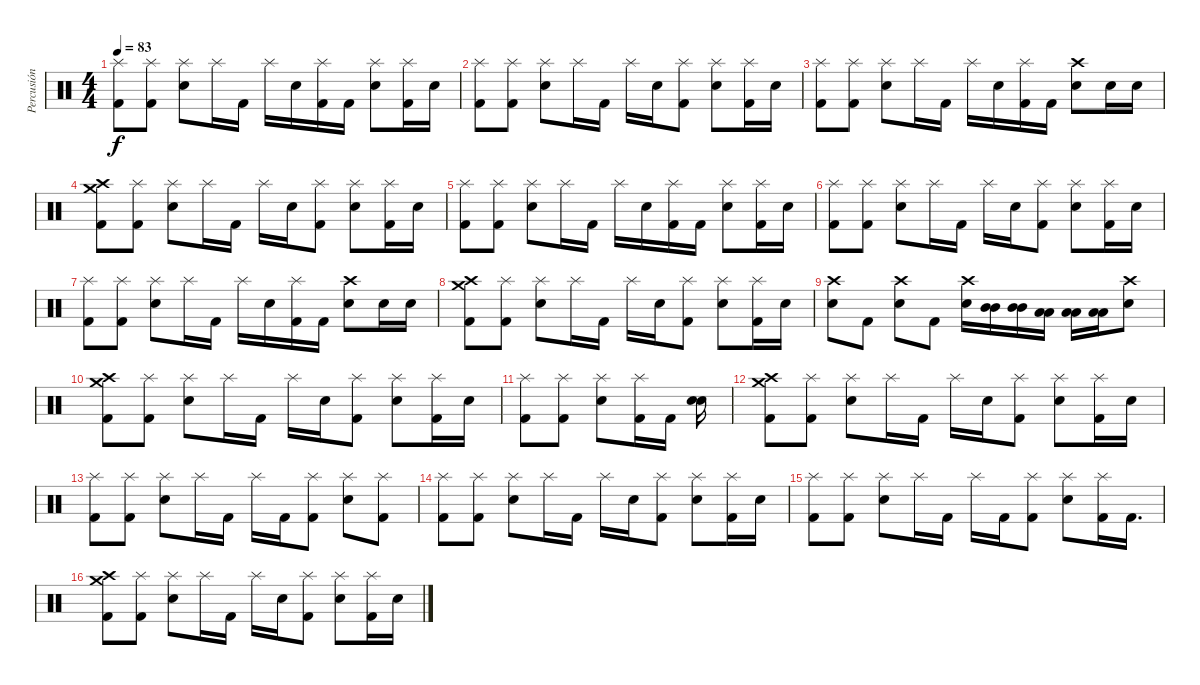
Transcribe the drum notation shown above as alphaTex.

\track ("Percusión" "Percusión") {instrument percussion}
\staff {score}
\articulation defaults
\ts (4 4)
\tempo 83
\clef neutral
\ks c
("Splash (hit)" "Kick (hit) 2").8{dy f} ("Splash (hit)" "Kick (hit) 2").8 ("Splash (hit)" "Electric Snare (hit)").8 "Splash (hit)".16 "Kick (hit) 2".16 "Splash (hit)".16 "Electric Snare (hit)".16 ("Splash (hit)" "Kick (hit) 2").16 "Kick (hit) 2".16 ("Splash (hit)" "Electric Snare (hit)").8 ("Splash (hit)" "Kick (hit) 2").16 "Electric Snare (hit)".16 |
("Splash (hit)" "Kick (hit) 2").8 ("Splash (hit)" "Kick (hit) 2").8 ("Splash (hit)" "Electric Snare (hit)").8 "Splash (hit)".16 "Kick (hit) 2".16 "Splash (hit)".16 "Electric Snare (hit)".16 ("Splash (hit)" "Kick (hit) 2").8 ("Splash (hit)" "Electric Snare (hit)").8 ("Splash (hit)" "Kick (hit) 2").16 "Electric Snare (hit)".16 |
("Splash (hit)" "Kick (hit) 2").8 ("Splash (hit)" "Kick (hit) 2").8 ("Splash (hit)" "Electric Snare (hit)").8 "Splash (hit)".16 "Kick (hit) 2".16 "Splash (hit)".16 "Electric Snare (hit)".16 ("Splash (hit)" "Kick (hit) 2").16 "Kick (hit) 2".16 ("Crash high (hit)" "Electric Snare (hit)").8 "Electric Snare (hit)".16 "Electric Snare (hit)".16 |
("Crash medium (hit)" "Crash high (hit)" "Kick (hit) 2").8 ("Splash (hit)" "Kick (hit) 2").8 ("Splash (hit)" "Electric Snare (hit)").8 "Splash (hit)".16 "Kick (hit) 2".16 "Splash (hit)".16 "Electric Snare (hit)".16 ("Splash (hit)" "Kick (hit) 2").8 ("Splash (hit)" "Electric Snare (hit)").8 ("Splash (hit)" "Kick (hit) 2").16 "Electric Snare (hit)".16 |
("Splash (hit)" "Kick (hit) 2").8 ("Splash (hit)" "Kick (hit) 2").8 ("Splash (hit)" "Electric Snare (hit)").8 "Splash (hit)".16 "Kick (hit) 2".16 "Splash (hit)".16 "Electric Snare (hit)".16 ("Splash (hit)" "Kick (hit) 2").16 "Kick (hit) 2".16 ("Splash (hit)" "Electric Snare (hit)").8 ("Splash (hit)" "Kick (hit) 2").16 "Electric Snare (hit)".16 |
("Splash (hit)" "Kick (hit) 2").8 ("Splash (hit)" "Kick (hit) 2").8 ("Splash (hit)" "Electric Snare (hit)").8 "Splash (hit)".16 "Kick (hit) 2".16 "Splash (hit)".16 "Electric Snare (hit)".16 ("Splash (hit)" "Kick (hit) 2").8 ("Splash (hit)" "Electric Snare (hit)").8 ("Splash (hit)" "Kick (hit) 2").16 "Electric Snare (hit)".16 |
("Splash (hit)" "Kick (hit) 2").8 ("Splash (hit)" "Kick (hit) 2").8 ("Splash (hit)" "Electric Snare (hit)").8 "Splash (hit)".16 "Kick (hit) 2".16 "Splash (hit)".16 "Electric Snare (hit)".16 ("Splash (hit)" "Kick (hit) 2").16 "Kick (hit) 2".16 ("Crash high (hit)" "Electric Snare (hit)").8 "Electric Snare (hit)".16 "Electric Snare (hit)".16 |
("Crash medium (hit)" "Crash high (hit)" "Kick (hit) 2").8 ("Splash (hit)" "Kick (hit) 2").8 ("Splash (hit)" "Electric Snare (hit)").8 "Splash (hit)".16 "Kick (hit) 2".16 "Splash (hit)".16 "Electric Snare (hit)".16 ("Splash (hit)" "Kick (hit) 2").8 ("Splash (hit)" "Electric Snare (hit)").8 ("Splash (hit)" "Kick (hit) 2").16 "Electric Snare (hit)".16 |
("Crash high (hit)" "Electric Snare (hit)").8 "Kick (hit) 2".8 ("Crash high (hit)" "Electric Snare (hit)").8 "Kick (hit) 2".8 ("Crash high (hit)" "Electric Snare (hit)").16 ("Mid Tom (hit)" "Mid Tom (hit)").16 ("Mid Tom (hit)" "Mid Tom (hit)").16 ("Low Tom (hit)" "Low Tom (hit)").16 ("Low Tom (hit)" "Low Tom (hit)").16 ("Low Floor Tom (hit)" "Low Floor Tom (hit)").16 ("Crash high (hit)" "Electric Snare (hit)").8 |
("Crash medium (hit)" "Crash high (hit)" "Kick (hit) 2").8 ("Splash (hit)" "Kick (hit) 2").8 ("Splash (hit)" "Electric Snare (hit)").8 "Splash (hit)".16 "Kick (hit) 2".16 "Splash (hit)".16 "Electric Snare (hit)".16 ("Splash (hit)" "Kick (hit) 2").8 ("Splash (hit)" "Electric Snare (hit)").8 ("Splash (hit)" "Kick (hit) 2").16 "Electric Snare (hit)".16 |
("Splash (hit)" "Kick (hit) 2").8 ("Splash (hit)" "Kick (hit) 2").8 ("Splash (hit)" "Electric Snare (hit)").8 ("Splash (hit)" "Kick (hit) 2").16 "Kick (hit) 2".16 ("Electric Snare (hit)" "Electric Snare (hit)").16 |
("Crash medium (hit)" "Crash high (hit)" "Kick (hit) 2").8 ("Splash (hit)" "Kick (hit) 2").8 ("Splash (hit)" "Electric Snare (hit)").8 "Splash (hit)".16 "Kick (hit) 2".16 "Splash (hit)".16 "Electric Snare (hit)".16 ("Splash (hit)" "Kick (hit) 2").8 ("Splash (hit)" "Electric Snare (hit)").8 ("Splash (hit)" "Kick (hit) 2").16 "Electric Snare (hit)".16 |
("Splash (hit)" "Kick (hit) 2").8 ("Splash (hit)" "Kick (hit) 2").8 ("Splash (hit)" "Electric Snare (hit)").8 "Splash (hit)".16 "Kick (hit) 2".16 "Splash (hit)".16 "Kick (hit) 2".16 ("Splash (hit)" "Kick (hit) 2").8 ("Splash (hit)" "Electric Snare (hit)").8 ("Splash (hit)" "Kick (hit) 2").8 |
("Splash (hit)" "Kick (hit) 2").8 ("Splash (hit)" "Kick (hit) 2").8 ("Splash (hit)" "Electric Snare (hit)").8 "Splash (hit)".16 "Kick (hit) 2".16 "Splash (hit)".16 "Electric Snare (hit)".16 ("Splash (hit)" "Kick (hit) 2").8 ("Splash (hit)" "Electric Snare (hit)").8 ("Splash (hit)" "Kick (hit) 2").16 "Electric Snare (hit)".16 |
("Splash (hit)" "Kick (hit) 2").8 ("Splash (hit)" "Kick (hit) 2").8 ("Splash (hit)" "Electric Snare (hit)").8 "Splash (hit)".16 "Kick (hit) 2".16 "Splash (hit)".16 "Kick (hit) 2".16 ("Splash (hit)" "Kick (hit) 2").8 ("Splash (hit)" "Electric Snare (hit)").8 ("Splash (hit)" "Kick (hit) 2").16 "Kick (hit) 2".16{d} |
("Crash medium (hit)" "Crash high (hit)" "Kick (hit) 2").8 ("Splash (hit)" "Kick (hit) 2").8 ("Splash (hit)" "Electric Snare (hit)").8 "Splash (hit)".16 "Kick (hit) 2".16 "Splash (hit)".16 "Electric Snare (hit)".16 ("Splash (hit)" "Kick (hit) 2").8 ("Splash (hit)" "Electric Snare (hit)").8 ("Splash (hit)" "Kick (hit) 2").16 "Electric Snare (hit)".16
